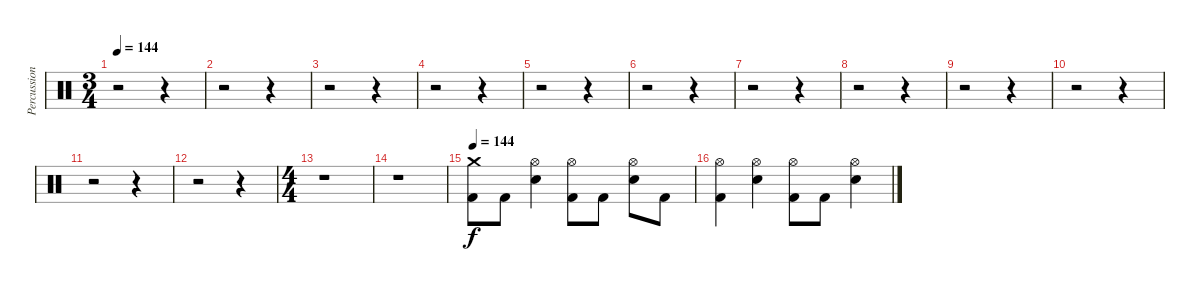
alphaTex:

\track ("Percussion" "Percussion") {instrument percussion}
\staff {score}
\articulation defaults
\ts (3 4)
\tempo 144
\clef neutral
\ks c
r.2{dy f} r.4 |
\section ("" "")
r.2 r.4 |
r.2 r.4 |
r.2 r.4 |
r.2 r.4 |
r.2 r.4 |
r.2 r.4 |
r.2 r.4 |
r.2 r.4 |
r.2 r.4 |
r.2 r.4 |
r.2 r.4 |
\ts (4 4)
r.1 |
r.1 |
\section ("" "")
\tempo 144
("Crash medium (hit)" "Kick (hit) 2").8 "Kick (hit) 2".8 ("Hi-Hat (open)" "Snare (hit) 2").4 ("Hi-Hat (open)" "Kick (hit) 2").8 "Kick (hit) 2".8 ("Hi-Hat (open)" "Snare (hit) 2").8 "Kick (hit) 2".8 |
("Hi-Hat (open)" "Kick (hit) 2").4 ("Hi-Hat (open)" "Snare (hit) 2").4 ("Hi-Hat (open)" "Kick (hit) 2").8 "Kick (hit) 2".8 ("Hi-Hat (open)" "Snare (hit) 2").4
